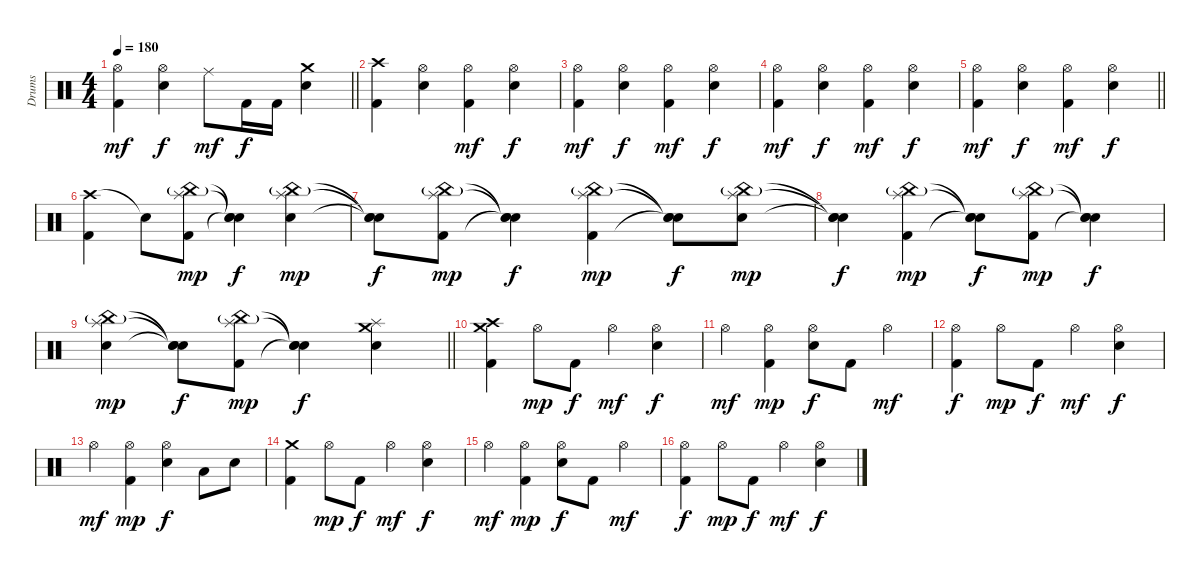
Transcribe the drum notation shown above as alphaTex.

\track ("Drums" "Drums") {instrument percussion}
\staff {score}
\articulation defaults
\ts (4 4)
\tempo 180
\clef neutral
\barLineRight lightlight
\ks c
("Hi-Hat (open)" "Kick (hit) 2").4{dy mf} ("Hi-Hat (open)" "Electric Snare (hit)").4{dy f} "Ride (middle)".8{dy mf} "Kick (hit) 2".16{dy f} "Kick (hit) 2".16 ("Crash medium (hit)" "Electric Snare (hit)").4 |
("Crash high (hit)" "Kick (hit) 2").4 ("Hi-Hat (open)" "Electric Snare (hit)").4 ("Hi-Hat (open)" "Kick (hit) 2").4{dy mf} ("Hi-Hat (open)" "Electric Snare (hit)").4{dy f} |
("Hi-Hat (open)" "Kick (hit) 2").4{dy mf} ("Hi-Hat (open)" "Electric Snare (hit)").4{dy f} ("Hi-Hat (open)" "Kick (hit) 2").4{dy mf} ("Hi-Hat (open)" "Electric Snare (hit)").4{dy f} |
("Hi-Hat (open)" "Kick (hit) 2").4{dy mf} ("Hi-Hat (open)" "Electric Snare (hit)").4{dy f} ("Hi-Hat (open)" "Kick (hit) 2").4{dy mf} ("Hi-Hat (open)" "Electric Snare (hit)").4{dy f} |
\barLineRight lightlight
("Hi-Hat (open)" "Kick (hit) 2").4{dy mf} ("Hi-Hat (open)" "Electric Snare (hit)").4{dy f} ("Hi-Hat (open)" "Kick (hit) 2").4{dy mf} ("Hi-Hat (open)" "Electric Snare (hit)").4{dy f} |
("Crash high (hit)" "Kick (hit) 2").4 "Snare (hit)"{t}.8 ("China (hit)"{g} "Splash (hit)" "Kick (hit) 2").8{dy mp} ("Snare (hit)"{t} "Snare (hit)"{t} "Snare (hit)"{t}).4{dy f} ("China (hit)"{g} "Splash (hit)" "Electric Snare (hit)").4{dy mp} |
("Snare (hit)"{t} "Snare (hit)"{t} "Snare (hit)"{t}).8{dy f} ("China (hit)"{g} "Splash (hit)" "Kick (hit) 2").8{dy mp} ("Snare (hit)"{t} "Snare (hit)"{t} "Snare (hit)"{t}).4{dy f} ("China (hit)"{g} "Splash (hit)" "Kick (hit) 2").4{dy mp} ("Snare (hit)"{t} "Snare (hit)"{t} "Snare (hit)"{t}).8{dy f} ("China (hit)"{g} "Splash (hit)" "Electric Snare (hit)").8{dy mp} |
("Snare (hit)"{t} "Snare (hit)"{t} "Snare (hit)"{t}).4{dy f} ("China (hit)"{g} "Splash (hit)" "Kick (hit) 2").4{dy mp} ("Snare (hit)"{t} "Snare (hit)"{t} "Snare (hit)"{t}).8{dy f} ("China (hit)"{g} "Splash (hit)" "Kick (hit) 2").8{dy mp} ("Snare (hit)"{t} "Snare (hit)"{t} "Snare (hit)"{t}).4{dy f} |
\barLineRight lightlight
("China (hit)"{g} "Splash (hit)" "Electric Snare (hit)").4{dy mp} ("Snare (hit)"{t} "Snare (hit)"{t} "Snare (hit)"{t}).8{dy f} ("China (hit)"{g} "Splash (hit)" "Kick (hit) 2").8{dy mp} ("Snare (hit)"{t} "Snare (hit)"{t} "Snare (hit)"{t}).4{dy f} ("Crash medium (hit)" "Splash (hit)" "Electric Snare (hit)").4 |
("Crash high (hit)" "Crash medium (hit)" "Kick (hit) 2").4 "Hi-Hat (open)".8{dy mp} "Kick (hit) 2".8{dy f} "Hi-Hat (open)".4{dy mf} ("Hi-Hat (open)" "Electric Snare (hit)").4{dy f} |
"Hi-Hat (open)".4{dy mf} ("Hi-Hat (open)" "Kick (hit) 2").4{dy mp} ("Hi-Hat (open)" "Electric Snare (hit)").8{dy f} "Kick (hit) 2".8 "Hi-Hat (open)".4{dy mf} |
("Hi-Hat (open)" "Kick (hit) 2").4{dy f} "Hi-Hat (open)".8{dy mp} "Kick (hit) 2".8{dy f} "Hi-Hat (open)".4{dy mf} ("Hi-Hat (open)" "Electric Snare (hit)").4{dy f} |
"Hi-Hat (open)".4{dy mf} ("Hi-Hat (open)" "Kick (hit) 2").4{dy mp} ("Hi-Hat (open)" "Electric Snare (hit)").4{dy f} "Low Tom (hit)".8 "Electric Snare (hit)".8 |
("Crash medium (hit)" "Kick (hit) 2").4 "Hi-Hat (open)".8{dy mp} "Kick (hit) 2".8{dy f} "Hi-Hat (open)".4{dy mf} ("Hi-Hat (open)" "Electric Snare (hit)").4{dy f} |
"Hi-Hat (open)".4{dy mf} ("Hi-Hat (open)" "Kick (hit) 2").4{dy mp} ("Hi-Hat (open)" "Electric Snare (hit)").8{dy f} "Kick (hit) 2".8 "Hi-Hat (open)".4{dy mf} |
("Hi-Hat (open)" "Kick (hit) 2").4{dy f} "Hi-Hat (open)".8{dy mp} "Kick (hit) 2".8{dy f} "Hi-Hat (open)".4{dy mf} ("Hi-Hat (open)" "Electric Snare (hit)").4{dy f}
